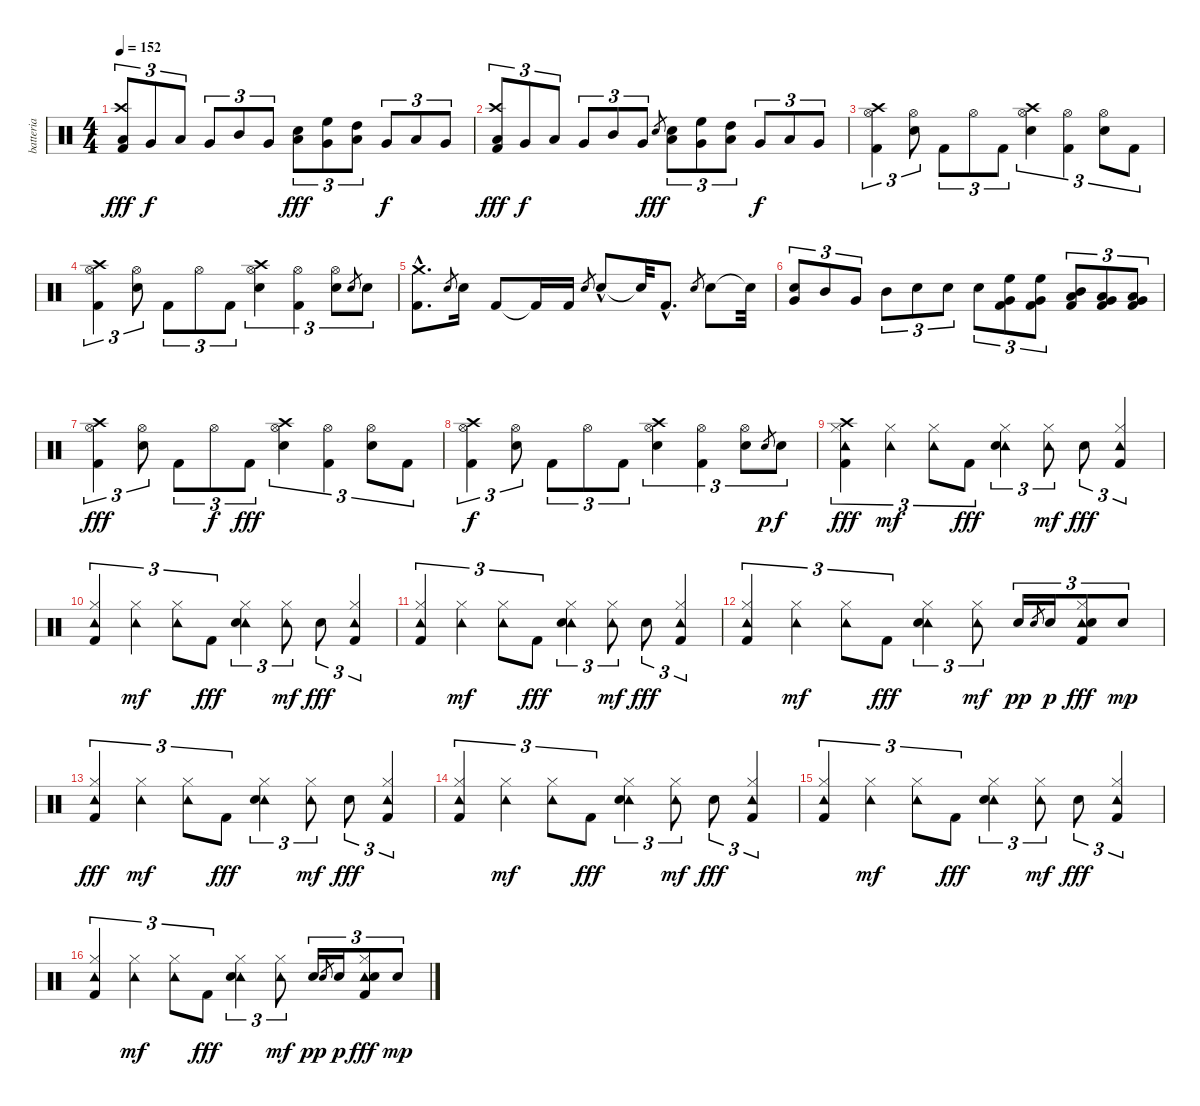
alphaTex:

\track ("batteria" "batteria") {instrument percussion}
\staff {score}
\articulation defaults
\ts (4 4)
\tempo 152
\clef neutral
\ks c
("Low Floor Tom (hit)" "Crash high (hit)" "Kick (hit) 2").8{tu (3 2) dy fff} "Very Low Tom (hit)".8{tu (3 2) dy f} "Low Floor Tom (hit)".8{tu (3 2)} "Very Low Tom (hit)".8{tu (3 2)} "Mid Tom (hit)".8{tu (3 2)} "Very Low Tom (hit)".8{tu (3 2)} ("Low Tom (hit)" "Electric Snare (hit)").8{tu (3 2) dy fff} ("Very Low Tom (hit)" "High Floor Tom (hit)").8{tu (3 2)} ("Low Floor Tom (hit)" "High Tom (hit)").8{tu (3 2)} "Very Low Tom (hit)".8{tu (3 2) dy f} "Low Tom (hit)".8{tu (3 2)} "Very Low Tom (hit)".8{tu (3 2)} |
("Low Floor Tom (hit)" "Crash high (hit)" "Kick (hit) 2").8{tu (3 2) dy fff} "Very Low Tom (hit)".8{tu (3 2) dy f} "Low Floor Tom (hit)".8{tu (3 2)} "Very Low Tom (hit)".8{tu (3 2)} "Mid Tom (hit)".8{tu (3 2)} "Very Low Tom (hit)".8{tu (3 2)} "Electric Snare (hit)".8{gr dy fff} ("Low Tom (hit)" "Electric Snare (hit)").8{tu (3 2)} ("Very Low Tom (hit)" "High Floor Tom (hit)").8{tu (3 2)} ("Low Floor Tom (hit)" "High Tom (hit)").8{tu (3 2)} "Very Low Tom (hit)".8{tu (3 2) dy f} "Low Tom (hit)".8{tu (3 2)} "Very Low Tom (hit)".8{tu (3 2)} |
("Hi-Hat (open)" "Crash high (hit)" "Kick (hit) 2").4{tu (3 2)} ("Hi-Hat (open)" "Electric Snare (hit)").8{tu (3 2)} "Kick (hit) 2".8{tu (3 2)} "Hi-Hat (open)".8{tu (3 2)} "Kick (hit) 2".8{tu (3 2)} ("Hi-Hat (open)" "Crash high (hit)" "Electric Snare (hit)").4{tu (3 2)} ("Hi-Hat (open)" "Kick (hit) 2").4{tu (3 2)} ("Hi-Hat (open)" "Electric Snare (hit)").8{tu (3 2)} "Kick (hit) 2".8{tu (3 2)} |
("Hi-Hat (open)" "Crash high (hit)" "Kick (hit) 2").4{tu (3 2)} ("Hi-Hat (open)" "Electric Snare (hit)").8{tu (3 2)} "Kick (hit) 2".8{tu (3 2)} "Hi-Hat (open)".8{tu (3 2)} "Kick (hit) 2".8{tu (3 2)} ("Hi-Hat (open)" "Crash high (hit)" "Electric Snare (hit)").4{tu (3 2)} ("Hi-Hat (open)" "Kick (hit) 2").4{tu (3 2)} ("Hi-Hat (open)" "Electric Snare (hit)").8{tu (3 2)} "Electric Snare (hit)".8{gr} "Electric Snare (hit)".8{tu (3 2)} |
("Crash medium (hit)"{hac} "Kick (hit) 2"{hac}).8{d} "Electric Snare (hit)".8{gr} "Electric Snare (hit)".16 "Kick (hit) 2".8 "Kick (hit) 2"{t}.16 "Kick (hit) 2".16 "Electric Snare (hit)".8{gr} "Electric Snare (hit)"{hac}.8 "Electric Snare (hit)"{t}.32 "Kick (hit) 2"{hac}.8{d} "Electric Snare (hit)".8{gr} "Electric Snare (hit)".8 "Electric Snare (hit)"{t}.32 |
("Very Low Tom (hit)" "Electric Snare (hit)").8{tu (3 2)} "Mid Tom (hit)".8{tu (3 2)} "Very Low Tom (hit)".8{tu (3 2)} "Mid Tom (hit)".8{tu (3 2)} "Electric Snare (hit)".8{tu (3 2)} "Electric Snare (hit)".8{tu (3 2)} "Electric Snare (hit)".8{tu (3 2)} ("Very Low Tom (hit)" "High Floor Tom (hit)" "Kick (hit) 2").8{tu (3 2)} ("Very Low Tom (hit)" "High Floor Tom (hit)" "Kick (hit) 2").8{tu (3 2)} ("Low Tom (hit)" "Mid Tom (hit)" "Kick (hit) 2").8{tu (3 2)} ("Low Tom (hit)" "Very Low Tom (hit)" "Kick (hit) 2").8{tu (3 2)} ("Low Floor Tom (hit)" "Very Low Tom (hit)" "Kick (hit) 2").8{tu (3 2)} |
("Hi-Hat (open)" "Crash high (hit)" "Kick (hit) 2").4{tu (3 2) dy fff} ("Hi-Hat (open)" "Electric Snare (hit)").8{tu (3 2)} "Kick (hit) 2".8{tu (3 2)} "Hi-Hat (open)".8{tu (3 2) dy f} "Kick (hit) 2".8{tu (3 2) dy fff} ("Hi-Hat (open)" "Crash high (hit)" "Electric Snare (hit)").4{tu (3 2)} ("Hi-Hat (open)" "Kick (hit) 2").4{tu (3 2)} ("Hi-Hat (open)" "Electric Snare (hit)").8{tu (3 2)} "Kick (hit) 2".8{tu (3 2)} |
("Hi-Hat (open)" "Crash high (hit)" "Kick (hit) 2").4{tu (3 2) dy f} ("Hi-Hat (open)" "Electric Snare (hit)").8{tu (3 2)} "Kick (hit) 2".8{tu (3 2)} "Hi-Hat (open)".8{tu (3 2)} "Kick (hit) 2".8{tu (3 2)} ("Hi-Hat (open)" "Crash high (hit)" "Electric Snare (hit)").4{tu (3 2)} ("Hi-Hat (open)" "Kick (hit) 2").4{tu (3 2)} ("Hi-Hat (open)" "Electric Snare (hit)").8{tu (3 2)} "Electric Snare (hit)"{h}.8{gr dy p} "Electric Snare (hit)".8{tu (3 2) dy f} |
("Hi-Hat (closed)" "Tambourine (hit)" "Crash high (hit)" "Kick (hit) 2").4{tu (3 2) dy fff} ("Hi-Hat (closed)" "Tambourine (hit)").4{tu (3 2) dy mf} ("Hi-Hat (closed)" "Tambourine (hit)").8{tu (3 2)} "Kick (hit) 2".8{tu (3 2) dy fff} ("Hi-Hat (closed)" "Tambourine (hit)" "Electric Snare (hit)").4{tu (3 2)} ("Hi-Hat (closed)" "Tambourine (hit)").8{tu (3 2) dy mf} "Electric Snare (hit)".8{tu (3 2) dy fff} ("Hi-Hat (closed)" "Tambourine (hit)" "Kick (hit) 2").4{tu (3 2)} |
("Hi-Hat (closed)" "Tambourine (hit)" "Kick (hit) 2").4{tu (3 2)} ("Hi-Hat (closed)" "Tambourine (hit)").4{tu (3 2) dy mf} ("Hi-Hat (closed)" "Tambourine (hit)").8{tu (3 2)} "Kick (hit) 2".8{tu (3 2) dy fff} ("Hi-Hat (closed)" "Tambourine (hit)" "Electric Snare (hit)").4{tu (3 2)} ("Hi-Hat (closed)" "Tambourine (hit)").8{tu (3 2) dy mf} "Electric Snare (hit)".8{tu (3 2) dy fff} ("Hi-Hat (closed)" "Tambourine (hit)" "Kick (hit) 2").4{tu (3 2)} |
("Hi-Hat (closed)" "Tambourine (hit)" "Kick (hit) 2").4{tu (3 2)} ("Hi-Hat (closed)" "Tambourine (hit)").4{tu (3 2) dy mf} ("Hi-Hat (closed)" "Tambourine (hit)").8{tu (3 2)} "Kick (hit) 2".8{tu (3 2) dy fff} ("Hi-Hat (closed)" "Tambourine (hit)" "Electric Snare (hit)").4{tu (3 2)} ("Hi-Hat (closed)" "Tambourine (hit)").8{tu (3 2) dy mf} "Electric Snare (hit)".8{tu (3 2) dy fff} ("Hi-Hat (closed)" "Tambourine (hit)" "Kick (hit) 2").4{tu (3 2)} |
("Hi-Hat (closed)" "Tambourine (hit)" "Kick (hit) 2").4{tu (3 2)} ("Hi-Hat (closed)" "Tambourine (hit)").4{tu (3 2) dy mf} ("Hi-Hat (closed)" "Tambourine (hit)").8{tu (3 2)} "Kick (hit) 2".8{tu (3 2) dy fff} ("Hi-Hat (closed)" "Tambourine (hit)" "Electric Snare (hit)").4{tu (3 2)} ("Hi-Hat (closed)" "Tambourine (hit)").8{tu (3 2) dy mf} "Electric Snare (hit)".16{tu (3 2) dy pp} "Electric Snare (hit)".8{gr} "Electric Snare (hit)".16{tu (3 2) dy p} ("Hi-Hat (closed)" "Tambourine (hit)" "Electric Snare (hit)" "Kick (hit) 2").8{tu (3 2) dy fff} "Electric Snare (hit)".8{tu (3 2) dy mp} |
("Hi-Hat (closed)" "Tambourine (hit)" "Kick (hit) 2").4{tu (3 2) dy fff} ("Hi-Hat (closed)" "Tambourine (hit)").4{tu (3 2) dy mf} ("Hi-Hat (closed)" "Tambourine (hit)").8{tu (3 2)} "Kick (hit) 2".8{tu (3 2) dy fff} ("Hi-Hat (closed)" "Tambourine (hit)" "Electric Snare (hit)").4{tu (3 2)} ("Hi-Hat (closed)" "Tambourine (hit)").8{tu (3 2) dy mf} "Electric Snare (hit)".8{tu (3 2) dy fff} ("Hi-Hat (closed)" "Tambourine (hit)" "Kick (hit) 2").4{tu (3 2)} |
("Hi-Hat (closed)" "Tambourine (hit)" "Kick (hit) 2").4{tu (3 2)} ("Hi-Hat (closed)" "Tambourine (hit)").4{tu (3 2) dy mf} ("Hi-Hat (closed)" "Tambourine (hit)").8{tu (3 2)} "Kick (hit) 2".8{tu (3 2) dy fff} ("Hi-Hat (closed)" "Tambourine (hit)" "Electric Snare (hit)").4{tu (3 2)} ("Hi-Hat (closed)" "Tambourine (hit)").8{tu (3 2) dy mf} "Electric Snare (hit)".8{tu (3 2) dy fff} ("Hi-Hat (closed)" "Tambourine (hit)" "Kick (hit) 2").4{tu (3 2)} |
("Hi-Hat (closed)" "Tambourine (hit)" "Kick (hit) 2").4{tu (3 2)} ("Hi-Hat (closed)" "Tambourine (hit)").4{tu (3 2) dy mf} ("Hi-Hat (closed)" "Tambourine (hit)").8{tu (3 2)} "Kick (hit) 2".8{tu (3 2) dy fff} ("Hi-Hat (closed)" "Tambourine (hit)" "Electric Snare (hit)").4{tu (3 2)} ("Hi-Hat (closed)" "Tambourine (hit)").8{tu (3 2) dy mf} "Electric Snare (hit)".8{tu (3 2) dy fff} ("Hi-Hat (closed)" "Tambourine (hit)" "Kick (hit) 2").4{tu (3 2)} |
("Hi-Hat (closed)" "Tambourine (hit)" "Kick (hit) 2").4{tu (3 2)} ("Hi-Hat (closed)" "Tambourine (hit)").4{tu (3 2) dy mf} ("Hi-Hat (closed)" "Tambourine (hit)").8{tu (3 2)} "Kick (hit) 2".8{tu (3 2) dy fff} ("Hi-Hat (closed)" "Tambourine (hit)" "Electric Snare (hit)").4{tu (3 2)} ("Hi-Hat (closed)" "Tambourine (hit)").8{tu (3 2) dy mf} "Electric Snare (hit)".16{tu (3 2) dy pp} "Electric Snare (hit)".8{gr} "Electric Snare (hit)".16{tu (3 2) dy p} ("Hi-Hat (closed)" "Tambourine (hit)" "Electric Snare (hit)" "Kick (hit) 2").8{tu (3 2) dy fff} "Electric Snare (hit)".8{tu (3 2) dy mp}
